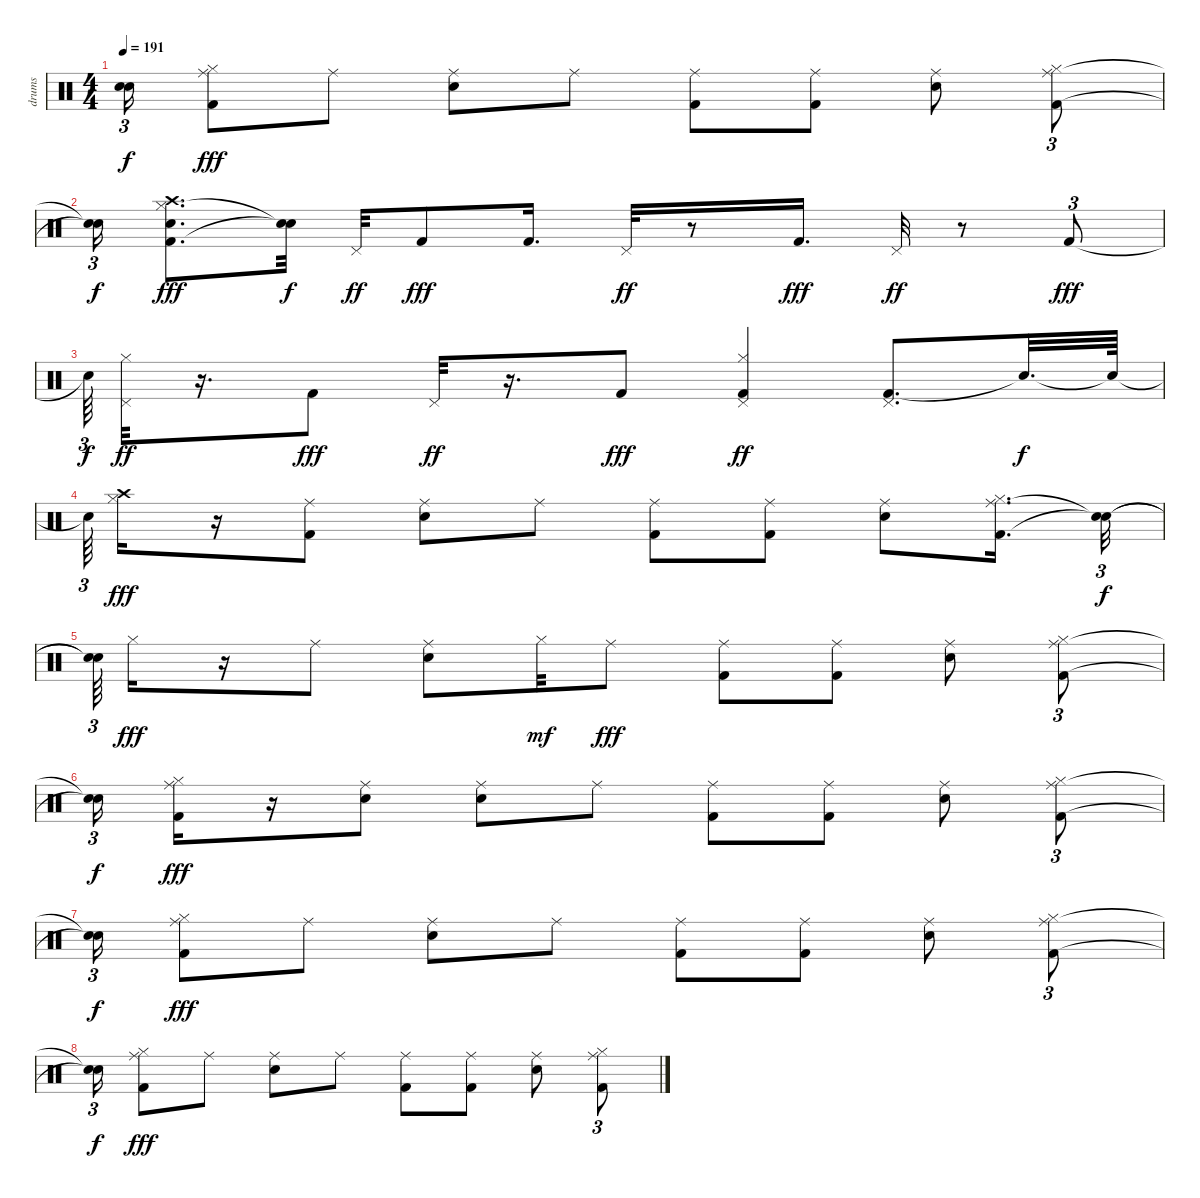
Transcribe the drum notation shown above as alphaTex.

\track ("drums               " "drums     ") {instrument percussion}
\staff {score}
\articulation defaults
\ts (4 4)
\tempo 191
\clef neutral
\ks c
("Snare (hit)"{t} "Snare (hit)"{t}).16{tu (3 2) dy f} ("Kick (hit) 2" "Ride (middle)" "Hi-Hat (closed)").8{dy fff} "Ride (middle)".8 ("Snare (hit) 2" "Ride (middle)").8 "Ride (middle)".8 ("Kick (hit) 2" "Ride (middle)").8 ("Kick (hit) 2" "Ride (middle)").8 ("Snare (hit) 2" "Ride (middle)").8 ("Kick (hit) 2" "Ride (middle)" "Hi-Hat (closed)").8{tu (3 2)} |
("Snare (hit)"{t} "Snare (hit)"{t}).16{tu (3 2) dy f} ("Kick (hit) 2" "Hi-Hat (closed)" "Snare (hit) 2" "Crash high (hit)").8{d dy fff} ("Snare (hit)"{t} "Snare (hit)"{t}).32{dy f} "Pedal Hi-Hat (hit)".32{dy ff} "Kick (hit) 2".8{dy fff} "Kick (hit) 2".16{d} "Pedal Hi-Hat (hit)".32{dy ff} r.8 "Kick (hit) 2".16{d dy fff} "Pedal Hi-Hat (hit)".32{dy ff} r.8 "Kick (hit) 2".8{tu (3 2) dy fff} |
"Snare (hit)"{t}.64{tu (3 2) dy f} ("Hi-Hat (closed)" "Pedal Hi-Hat (hit)").32{dy ff} r.16{d} "Kick (hit) 2".8{dy fff} "Pedal Hi-Hat (hit)".32{dy ff} r.16{d} "Kick (hit) 2".8{dy fff} ("Kick (hit) 2" "Hi-Hat (closed)" "Pedal Hi-Hat (hit)").4{dy ff} ("Kick (hit) 2" "Pedal Hi-Hat (hit)").8{d} "Snare (hit)"{t}.32{d dy f} "Snare (hit)"{t}.64 |
"Snare (hit)"{t}.64{tu (3 2)} ("Hi-Hat (closed)" "Crash high (hit)").16{dy fff} r.16 ("Kick (hit) 2" "Ride (middle)").8 ("Snare (hit) 2" "Ride (middle)").8 "Ride (middle)".8 ("Kick (hit) 2" "Ride (middle)").8 ("Kick (hit) 2" "Ride (middle)").8 ("Snare (hit) 2" "Ride (middle)").8 ("Kick (hit) 2" "Ride (middle)" "Hi-Hat (closed)").16{d} ("Snare (hit)"{t} "Snare (hit)"{t}).32{tu (3 2) dy f} |
("Snare (hit)"{t} "Snare (hit)"{t}).64{tu (3 2)} "Hi-Hat (closed)".16{dy fff} r.16 "Ride (middle)".8 ("Snare (hit) 2" "Ride (middle)").8 "Hi-Hat (closed)".32{dy mf} "Ride (middle)".8{dy fff} ("Kick (hit) 2" "Ride (middle)").8 ("Kick (hit) 2" "Ride (middle)").8 ("Snare (hit) 2" "Ride (middle)").8 ("Kick (hit) 2" "Ride (middle)" "Hi-Hat (closed)").8{tu (3 2)} |
("Snare (hit)"{t} "Snare (hit)"{t}).16{tu (3 2) dy f} ("Kick (hit) 2" "Ride (middle)" "Hi-Hat (closed)").16{dy fff} r.16 ("Snare (hit) 2" "Ride (middle)").8 ("Snare (hit) 2" "Ride (middle)").8 "Ride (middle)".8 ("Kick (hit) 2" "Ride (middle)").8 ("Kick (hit) 2" "Ride (middle)").8 ("Snare (hit) 2" "Ride (middle)").8 ("Kick (hit) 2" "Ride (middle)" "Hi-Hat (closed)").8{tu (3 2)} |
("Snare (hit)"{t} "Snare (hit)"{t}).16{tu (3 2) dy f} ("Kick (hit) 2" "Ride (middle)" "Hi-Hat (closed)").8{dy fff} "Ride (middle)".8 ("Snare (hit) 2" "Ride (middle)").8 "Ride (middle)".8 ("Kick (hit) 2" "Ride (middle)").8 ("Kick (hit) 2" "Ride (middle)").8 ("Snare (hit) 2" "Ride (middle)").8 ("Kick (hit) 2" "Ride (middle)" "Hi-Hat (closed)").8{tu (3 2)} |
("Snare (hit)"{t} "Snare (hit)"{t}).16{tu (3 2) dy f} ("Kick (hit) 2" "Ride (middle)" "Hi-Hat (closed)").8{dy fff} "Ride (middle)".8 ("Snare (hit) 2" "Ride (middle)").8 "Ride (middle)".8 ("Kick (hit) 2" "Ride (middle)").8 ("Kick (hit) 2" "Ride (middle)").8 ("Snare (hit) 2" "Ride (middle)").8 ("Kick (hit) 2" "Ride (middle)" "Hi-Hat (closed)").8{tu (3 2)}
